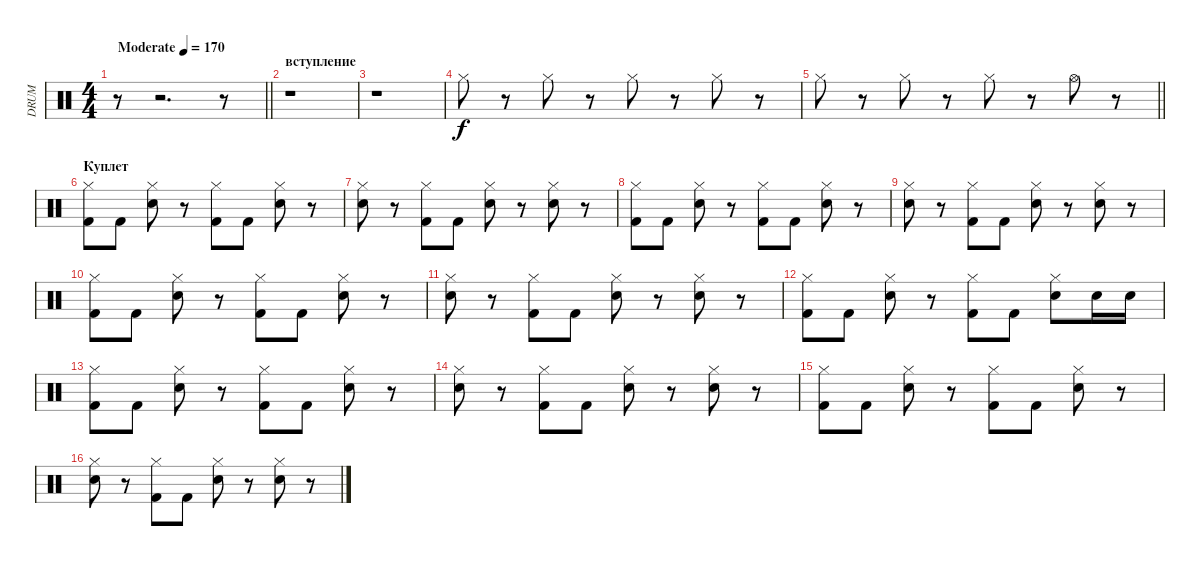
\track ("DRUM" "DRUM") {instrument percussion}
\staff {score}
\articulation defaults
\ts (4 4)
\tempo (170 "Moderate")
\clef neutral
\barLineRight lightlight
\ks c
r.8{dy f} r.2{d} r.8 |
\section ("" "вступление")
r.1 |
r.1 |
"Hi-Hat (closed)".8 r.8 "Hi-Hat (closed)".8 r.8 "Hi-Hat (closed)".8 r.8 "Hi-Hat (closed)".8 r.8 |
\barLineRight lightlight "Hi-Hat (closed)".8
r.8 "Hi-Hat (closed)".8 r.8 "Hi-Hat (closed)".8 r.8 "Hi-Hat (open)".8 r.8 |
\section ("" "Куплет")
("Hi-Hat (closed)" "Kick (hit) 2").8 "Kick (hit) 2".8 ("Hi-Hat (closed)" "Snare (hit) 2").8 r.8 ("Hi-Hat (closed)" "Kick (hit) 2").8 "Kick (hit) 2".8 ("Hi-Hat (closed)" "Snare (hit) 2").8 r.8 |
("Hi-Hat (closed)" "Snare (hit) 2").8 r.8 ("Hi-Hat (closed)" "Kick (hit) 2").8 "Kick (hit) 2".8 ("Hi-Hat (closed)" "Snare (hit) 2").8 r.8 ("Hi-Hat (closed)" "Snare (hit) 2").8 r.8 |
("Hi-Hat (closed)" "Kick (hit) 2").8 "Kick (hit) 2".8 ("Hi-Hat (closed)" "Snare (hit) 2").8 r.8 ("Hi-Hat (closed)" "Kick (hit) 2").8 "Kick (hit) 2".8 ("Hi-Hat (closed)" "Snare (hit) 2").8 r.8 |
("Hi-Hat (closed)" "Snare (hit) 2").8 r.8 ("Hi-Hat (closed)" "Kick (hit) 2").8 "Kick (hit) 2".8 ("Hi-Hat (closed)" "Snare (hit) 2").8 r.8 ("Hi-Hat (closed)" "Snare (hit) 2").8 r.8 |
("Hi-Hat (closed)" "Kick (hit) 2").8 "Kick (hit) 2".8 ("Hi-Hat (closed)" "Snare (hit) 2").8 r.8 ("Hi-Hat (closed)" "Kick (hit) 2").8 "Kick (hit) 2".8 ("Hi-Hat (closed)" "Snare (hit) 2").8 r.8 |
("Hi-Hat (closed)" "Snare (hit) 2").8 r.8 ("Hi-Hat (closed)" "Kick (hit) 2").8 "Kick (hit) 2".8 ("Hi-Hat (closed)" "Snare (hit) 2").8 r.8 ("Hi-Hat (closed)" "Snare (hit) 2").8 r.8 |
("Hi-Hat (closed)" "Kick (hit) 2").8 "Kick (hit) 2".8 ("Hi-Hat (closed)" "Snare (hit) 2").8 r.8 ("Hi-Hat (closed)" "Kick (hit) 2").8 "Kick (hit) 2".8 ("Hi-Hat (closed)" "Snare (hit) 2").8 "Snare (hit) 2".16 "Snare (hit) 2".16 |
("Hi-Hat (closed)" "Kick (hit) 2").8 "Kick (hit) 2".8 ("Hi-Hat (closed)" "Snare (hit) 2").8 r.8 ("Hi-Hat (closed)" "Kick (hit) 2").8 "Kick (hit) 2".8 ("Hi-Hat (closed)" "Snare (hit) 2").8 r.8 |
("Hi-Hat (closed)" "Snare (hit) 2").8 r.8 ("Hi-Hat (closed)" "Kick (hit) 2").8 "Kick (hit) 2".8 ("Hi-Hat (closed)" "Snare (hit) 2").8 r.8 ("Hi-Hat (closed)" "Snare (hit) 2").8 r.8 |
("Hi-Hat (closed)" "Kick (hit) 2").8 "Kick (hit) 2".8 ("Hi-Hat (closed)" "Snare (hit) 2").8 r.8 ("Hi-Hat (closed)" "Kick (hit) 2").8 "Kick (hit) 2".8 ("Hi-Hat (closed)" "Snare (hit) 2").8 r.8 |
("Hi-Hat (closed)" "Snare (hit) 2").8 r.8 ("Hi-Hat (closed)" "Kick (hit) 2").8 "Kick (hit) 2".8 ("Hi-Hat (closed)" "Snare (hit) 2").8 r.8 ("Hi-Hat (closed)" "Snare (hit) 2").8 r.8
